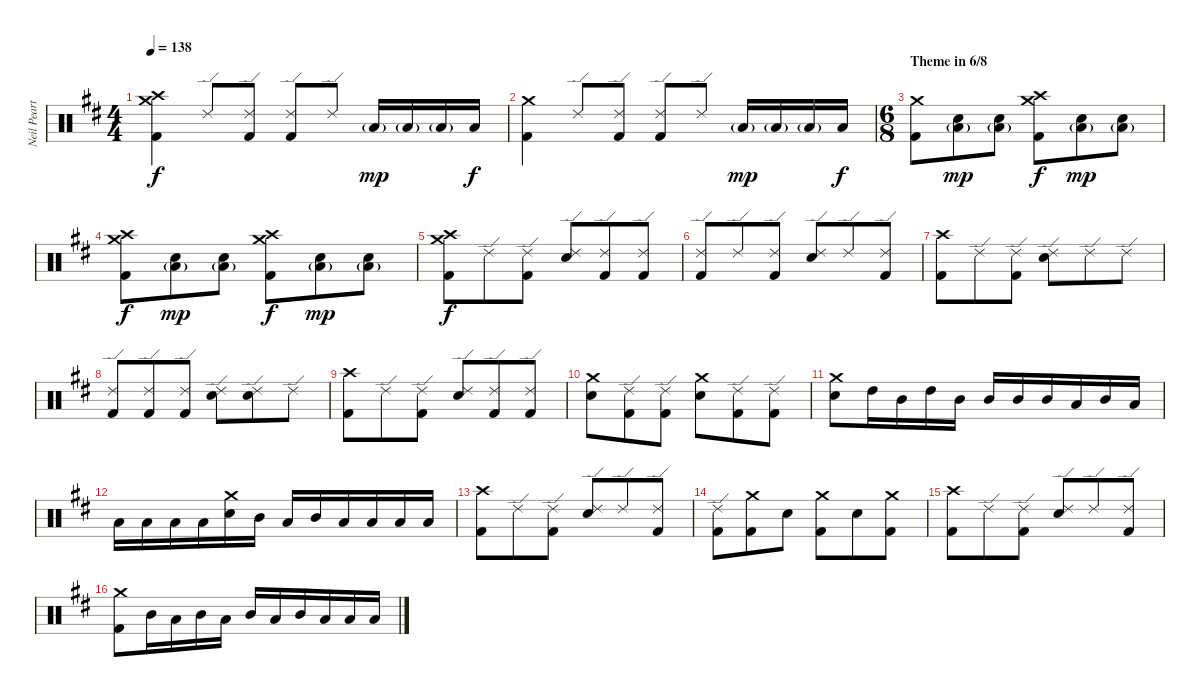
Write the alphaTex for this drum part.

\track ("Neil Peart" "Neil Peart") {instrument percussion}
\staff {score}
\articulation defaults
\ts (4 4)
\tempo 138
\clef neutral
\ks d
("Crash high (hit)" "Crash medium (hit)" "Kick (hit) 2").4{dy f} "Ride (edge) 2".8 ("Ride (edge) 2" "Kick (hit) 2").8 ("Ride (edge) 2" "Kick (hit) 2").8 "Ride (edge) 2".8 "Low Floor Tom (hit)"{g}.16{dy mp} "Low Floor Tom (hit)"{g}.16 "Low Floor Tom (hit)"{g}.16 "Low Floor Tom (hit)".16{dy f} |
("Crash medium (hit)" "Kick (hit) 2").4 "Ride (edge) 2".8 ("Ride (edge) 2" "Kick (hit) 2").8 ("Ride (edge) 2" "Kick (hit) 2").8 "Ride (edge) 2".8 "Low Floor Tom (hit)"{g}.16{dy mp} "Low Floor Tom (hit)"{g}.16 "Low Floor Tom (hit)"{g}.16 "Low Floor Tom (hit)".16{dy f} |
\ts (6 8)
\section ("" "Theme in 6/8")
("Crash medium (hit)" "Kick (hit) 2").8 ("Low Tom (hit)"{g} "Electric Snare (hit)").8{dy mp} ("Low Tom (hit)"{g} "Electric Snare (hit)").8 ("Crash medium (hit)" "Crash high (hit)" "Kick (hit) 2").8{dy f} ("Low Tom (hit)"{g} "Electric Snare (hit)").8{dy mp} ("Low Tom (hit)"{g} "Electric Snare (hit)").8 |
("Crash medium (hit)" "Crash high (hit)" "Kick (hit) 2").8{dy f} ("Low Tom (hit)"{g} "Electric Snare (hit)").8{dy mp} ("Low Tom (hit)"{g} "Electric Snare (hit)").8 ("Crash high (hit)" "Crash medium (hit)" "Kick (hit) 2").8{dy f} ("Low Tom (hit)"{g} "Electric Snare (hit)").8{dy mp} ("Low Tom (hit)"{g} "Electric Snare (hit)").8 |
("Crash high (hit)" "Crash medium (hit)" "Kick (hit) 2").8{dy f} "Ride (edge) 2".8 ("Ride (edge) 2" "Kick (hit) 2").8 ("Ride (edge) 2" "Electric Snare (hit)").8 ("Ride (edge) 2" "Kick (hit) 2").8 ("Ride (edge) 2" "Kick (hit) 2").8 |
("Ride (edge) 2" "Kick (hit) 2").8 "Ride (edge) 2".8 ("Ride (edge) 2" "Kick (hit) 2").8 ("Ride (edge) 2" "Electric Snare (hit)").8 "Ride (edge) 2".8 ("Ride (edge) 2" "Kick (hit) 2").8 |
("Crash high (hit)" "Kick (hit) 2").8 "Ride (edge) 2".8 ("Ride (edge) 2" "Kick (hit) 2").8 ("Ride (edge) 2" "Electric Snare (hit)").8 "Ride (edge) 2".8 "Ride (edge) 2".8 |
("Ride (edge) 2" "Kick (hit) 2").8 ("Ride (edge) 2" "Kick (hit) 2").8 ("Ride (edge) 2" "Kick (hit) 2").8 ("Ride (edge) 2" "Electric Snare (hit)").8 ("Ride (edge) 2" "Electric Snare (hit)").8 "Ride (edge) 2".8 |
("Crash high (hit)" "Kick (hit) 2").8 "Ride (edge) 2".8 ("Ride (edge) 2" "Kick (hit) 2").8 ("Ride (edge) 2" "Electric Snare (hit)").8 ("Ride (edge) 2" "Kick (hit) 2").8 ("Ride (edge) 2" "Kick (hit) 2").8 |
("Crash medium (hit)" "Electric Snare (hit)").8 ("Ride (edge) 2" "Kick (hit) 2").8 ("Ride (edge) 2" "Kick (hit) 2").8 ("Crash medium (hit)" "Electric Snare (hit)").8 ("Ride (edge) 2" "Kick (hit) 2").8 ("Ride (edge) 2" "Kick (hit) 2").8 |
("Crash medium (hit)" "Electric Snare (hit)").8 "High Tom (hit)".16 "Mid Tom (hit)".16 "High Tom (hit)".16 "Mid Tom (hit)".16 "Mid Tom (hit)".16 "Mid Tom (hit)".16 "Mid Tom (hit)".16 "Low Tom (hit)".16 "Mid Tom (hit)".16 "Low Tom (hit)".16 |
"Low Tom (hit)".16 "Low Tom (hit)".16 "Low Tom (hit)".16 "Low Tom (hit)".16 ("Crash medium (hit)" "Electric Snare (hit)").16 "Mid Tom (hit)".16 "Low Tom (hit)".16 "Mid Tom (hit)".16 "Low Tom (hit)".16 "Low Tom (hit)".16 "Low Floor Tom (hit)".16 "Low Floor Tom (hit)".16 |
("Crash high (hit)" "Kick (hit) 2").8 "Ride (edge) 2".8 ("Ride (edge) 2" "Kick (hit) 2").8 ("Ride (edge) 2" "Electric Snare (hit)").8 "Ride (edge) 2".8 ("Ride (edge) 2" "Kick (hit) 2").8 |
("Ride (edge) 2" "Kick (hit) 2").8 ("Crash medium (hit)" "Kick (hit) 2").8 "Electric Snare (hit)".8 ("Crash medium (hit)" "Kick (hit) 2").8 "Electric Snare (hit)".8 ("Crash medium (hit)" "Kick (hit) 2").8 |
("Crash high (hit)" "Kick (hit) 2").8 "Ride (edge) 2".8 ("Ride (edge) 2" "Kick (hit) 2").8 ("Ride (edge) 2" "Electric Snare (hit)").8 "Ride (edge) 2".8 ("Ride (edge) 2" "Kick (hit) 2").8 |
("Crash medium (hit)" "Kick (hit) 2").8 "Mid Tom (hit)".16 "Low Tom (hit)".16 "Mid Tom (hit)".16 "Low Tom (hit)".16 "Mid Tom (hit)".16 "Low Tom (hit)".16 "Mid Tom (hit)".16 "Low Tom (hit)".16 "Low Tom (hit)".16 "Low Tom (hit)".16
